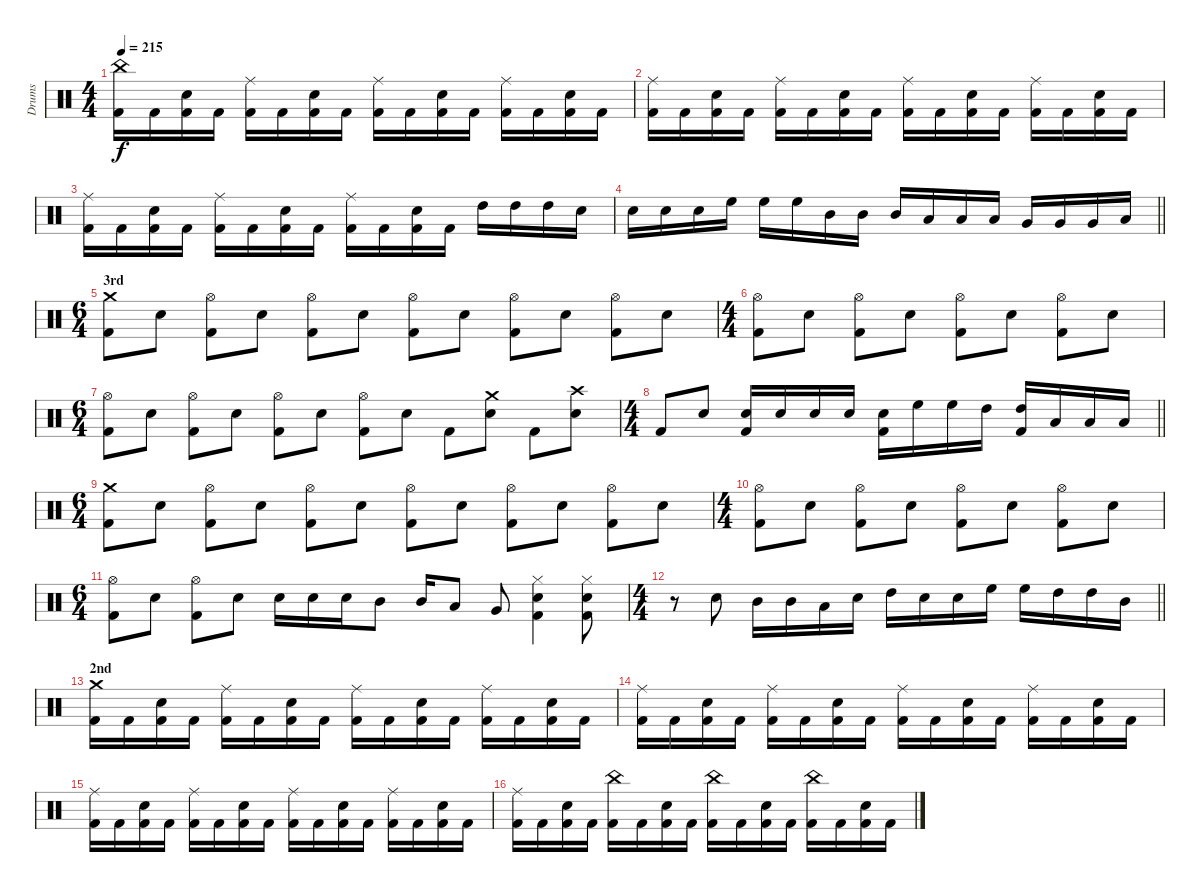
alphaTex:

\track ("Drums" "Drums") {instrument percussion}
\staff {score}
\articulation defaults
\ts (4 4)
\tempo 215
\clef neutral
\ks c
("China (hit)" "Kick (hit) 2").16{dy f} "Kick (hit) 2".16 ("Snare (hit) 2" "Kick (hit) 2").16 "Kick (hit) 2".16 ("Ride (middle)" "Kick (hit) 2").16 "Kick (hit) 2".16 ("Snare (hit) 2" "Kick (hit) 2").16 "Kick (hit) 2".16 ("Ride (middle)" "Kick (hit) 2").16 "Kick (hit) 2".16 ("Snare (hit) 2" "Kick (hit) 2").16 "Kick (hit) 2".16 ("Ride (middle)" "Kick (hit) 2").16 "Kick (hit) 2".16 ("Snare (hit) 2" "Kick (hit) 2").16 "Kick (hit) 2".16 |
("Ride (middle)" "Kick (hit) 2").16 "Kick (hit) 2".16 ("Snare (hit) 2" "Kick (hit) 2").16 "Kick (hit) 2".16 ("Ride (middle)" "Kick (hit) 2").16 "Kick (hit) 2".16 ("Snare (hit) 2" "Kick (hit) 2").16 "Kick (hit) 2".16 ("Ride (middle)" "Kick (hit) 2").16 "Kick (hit) 2".16 ("Snare (hit) 2" "Kick (hit) 2").16 "Kick (hit) 2".16 ("Ride (middle)" "Kick (hit) 2").16 "Kick (hit) 2".16 ("Snare (hit) 2" "Kick (hit) 2").16 "Kick (hit) 2".16 |
("Ride (middle)" "Kick (hit) 2").16 "Kick (hit) 2".16 ("Snare (hit) 2" "Kick (hit) 2").16 "Kick (hit) 2".16 ("Ride (middle)" "Kick (hit) 2").16 "Kick (hit) 2".16 ("Snare (hit) 2" "Kick (hit) 2").16 "Kick (hit) 2".16 ("Ride (middle)" "Kick (hit) 2").16 "Kick (hit) 2".16 ("Snare (hit) 2" "Kick (hit) 2").16 "Kick (hit) 2".16 "High Tom (hit)".16 "High Tom (hit)".16 "High Tom (hit)".16 "Snare (hit) 2".16 |
\barLineRight lightlight "Snare (hit) 2".16 "Snare (hit) 2".16 "Snare (hit) 2".16 "High Floor Tom (hit)".16 "High Floor Tom (hit)".16 "High Floor Tom (hit)".16 "Mid Tom (hit)".16 "Mid Tom (hit)".16 "Mid Tom (hit)".16 "Low Tom (hit)".16 "Low Tom (hit)".16 "Low Tom (hit)".16 "Very Low Tom (hit)".16 "Very Low Tom (hit)".16 "Very Low Tom (hit)".16 "Low Floor Tom (hit)".16
|
\ts (6 4)
\section ("" "3rd")
("Crash medium (hit)" "Kick (hit) 2").8 "Snare (hit) 2".8 ("Hi-Hat (open)" "Kick (hit) 2").8 "Snare (hit) 2".8 ("Hi-Hat (open)" "Kick (hit) 2").8 "Snare (hit) 2".8 ("Hi-Hat (open)" "Kick (hit) 2").8 "Snare (hit) 2".8 ("Hi-Hat (open)" "Kick (hit) 2").8 "Snare (hit) 2".8 ("Hi-Hat (open)" "Kick (hit) 2").8 "Snare (hit) 2".8 |
\ts (4 4)
("Hi-Hat (open)" "Kick (hit) 2").8 "Snare (hit) 2".8 ("Hi-Hat (open)" "Kick (hit) 2").8 "Snare (hit) 2".8 ("Hi-Hat (open)" "Kick (hit) 2").8 "Snare (hit) 2".8 ("Hi-Hat (open)" "Kick (hit) 2").8 "Snare (hit) 2".8 |
\ts (6 4)
("Hi-Hat (open)" "Kick (hit) 2").8 "Snare (hit) 2".8 ("Hi-Hat (open)" "Kick (hit) 2").8 "Snare (hit) 2".8 ("Hi-Hat (open)" "Kick (hit) 2").8 "Snare (hit) 2".8 ("Hi-Hat (open)" "Kick (hit) 2").8 "Snare (hit) 2".8 "Kick (hit) 2".8 ("Crash medium (hit)" "Snare (hit) 2").8 "Kick (hit) 2".8 ("Crash high (hit)" "Snare (hit) 2").8 |
\ts (4 4)
\barLineRight lightlight "Kick (hit) 2".8 "Snare (hit) 2".8
("Snare (hit) 2" "Kick (hit) 2").16 "Snare (hit) 2".16 "Snare (hit) 2".16 "Snare (hit) 2".16 ("Snare (hit) 2" "Kick (hit) 2").16 "High Floor Tom (hit)".16 "High Floor Tom (hit)".16 "High Tom (hit)".16 ("High Tom (hit)" "Kick (hit) 2").16 "Low Tom (hit)".16 "Low Tom (hit)".16 "Low Tom (hit)".16 |
\ts (6 4)
("Crash medium (hit)" "Kick (hit) 2").8 "Snare (hit) 2".8 ("Hi-Hat (open)" "Kick (hit) 2").8 "Snare (hit) 2".8 ("Hi-Hat (open)" "Kick (hit) 2").8 "Snare (hit) 2".8 ("Hi-Hat (open)" "Kick (hit) 2").8 "Snare (hit) 2".8 ("Hi-Hat (open)" "Kick (hit) 2").8 "Snare (hit) 2".8 ("Hi-Hat (open)" "Kick (hit) 2").8 "Snare (hit) 2".8 |
\ts (4 4)
("Hi-Hat (open)" "Kick (hit) 2").8 "Snare (hit) 2".8 ("Hi-Hat (open)" "Kick (hit) 2").8 "Snare (hit) 2".8 ("Hi-Hat (open)" "Kick (hit) 2").8 "Snare (hit) 2".8 ("Hi-Hat (open)" "Kick (hit) 2").8 "Snare (hit) 2".8 |
\ts (6 4)
("Hi-Hat (open)" "Kick (hit) 2").8 "Snare (hit) 2".8 ("Hi-Hat (open)" "Kick (hit) 2").8 "Snare (hit) 2".8 "Snare (hit) 2".16 "Snare (hit) 2".16 "Snare (hit) 2".16 "Mid Tom (hit)".8 "Mid Tom (hit)".16 "Low Tom (hit)".8 "Very Low Tom (hit)".8 ("Hi-Hat (closed)" "Snare (hit) 2" "Kick (hit) 2").4 ("Hi-Hat (closed)" "Snare (hit) 2" "Kick (hit) 2").8 |
\ts (4 4)
\barLineRight lightlight
r.8 "Snare (hit) 2".8 "Mid Tom (hit)".16 "Mid Tom (hit)".16 "Low Tom (hit)".16 "Snare (hit) 2".16 "High Tom (hit)".16 "Snare (hit) 2".16 "Snare (hit) 2".16 "High Floor Tom (hit)".16 "High Floor Tom (hit)".16 "High Tom (hit)".16 "High Tom (hit)".16 "Mid Tom (hit)".16 |
\section ("" "2nd")
("Crash medium (hit)" "Kick (hit) 2").16 "Kick (hit) 2".16 ("Snare (hit) 2" "Kick (hit) 2").16 "Kick (hit) 2".16 ("Ride (middle)" "Kick (hit) 2").16 "Kick (hit) 2".16 ("Snare (hit) 2" "Kick (hit) 2").16 "Kick (hit) 2".16 ("Ride (middle)" "Kick (hit) 2").16 "Kick (hit) 2".16 ("Snare (hit) 2" "Kick (hit) 2").16 "Kick (hit) 2".16 ("Ride (middle)" "Kick (hit) 2").16 "Kick (hit) 2".16 ("Snare (hit) 2" "Kick (hit) 2").16 "Kick (hit) 2".16 |
("Ride (middle)" "Kick (hit) 2").16 "Kick (hit) 2".16 ("Snare (hit) 2" "Kick (hit) 2").16 "Kick (hit) 2".16 ("Ride (middle)" "Kick (hit) 2").16 "Kick (hit) 2".16 ("Snare (hit) 2" "Kick (hit) 2").16 "Kick (hit) 2".16 ("Ride (middle)" "Kick (hit) 2").16 "Kick (hit) 2".16 ("Snare (hit) 2" "Kick (hit) 2").16 "Kick (hit) 2".16 ("Ride (middle)" "Kick (hit) 2").16 "Kick (hit) 2".16 ("Snare (hit) 2" "Kick (hit) 2").16 "Kick (hit) 2".16 |
("Ride (middle)" "Kick (hit) 2").16 "Kick (hit) 2".16 ("Snare (hit) 2" "Kick (hit) 2").16 "Kick (hit) 2".16 ("Ride (middle)" "Kick (hit) 2").16 "Kick (hit) 2".16 ("Snare (hit) 2" "Kick (hit) 2").16 "Kick (hit) 2".16 ("Ride (middle)" "Kick (hit) 2").16 "Kick (hit) 2".16 ("Snare (hit) 2" "Kick (hit) 2").16 "Kick (hit) 2".16 ("Ride (middle)" "Kick (hit) 2").16 "Kick (hit) 2".16 ("Snare (hit) 2" "Kick (hit) 2").16 "Kick (hit) 2".16 |
("Ride (middle)" "Kick (hit) 2").16 "Kick (hit) 2".16 ("Snare (hit) 2" "Kick (hit) 2").16 "Kick (hit) 2".16 ("China (hit)" "Kick (hit) 2").16 "Kick (hit) 2".16 ("Snare (hit) 2" "Kick (hit) 2").16 "Kick (hit) 2".16 ("China (hit)" "Kick (hit) 2").16 "Kick (hit) 2".16 ("Snare (hit) 2" "Kick (hit) 2").16 "Kick (hit) 2".16 ("China (hit)" "Kick (hit) 2").16 "Kick (hit) 2".16 ("Snare (hit) 2" "Kick (hit) 2").16 "Kick (hit) 2".16
